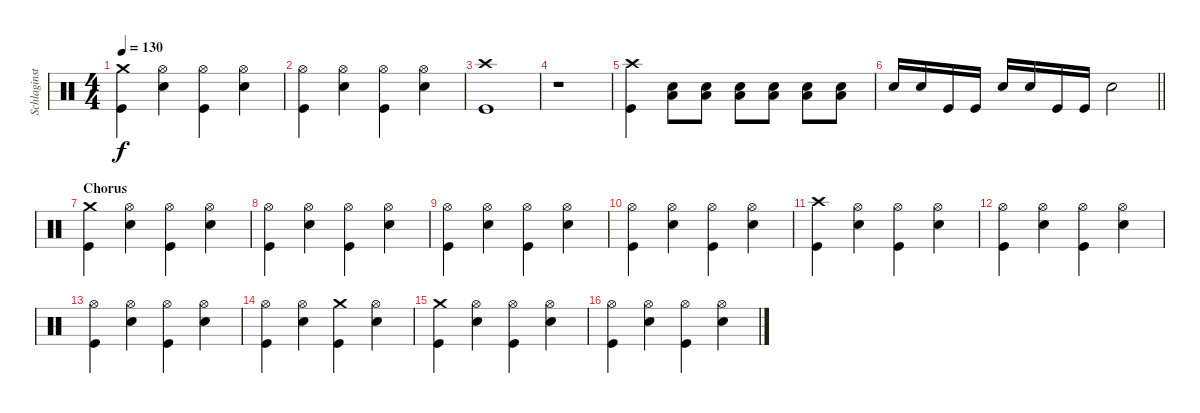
\track ("Schlaginstrumente - Auswahl" "Schlaginst") {instrument percussion}
\staff {score}
\articulation defaults
\ts (4 4)
\tempo 130
\clef neutral
\ks c
("Crash medium (hit)" "Kick (hit)").4{dy f} ("Hi-Hat (open)" "Snare (hit) 2").4 ("Hi-Hat (open)" "Kick (hit)").4 ("Hi-Hat (open)" "Snare (hit) 2").4 |
("Hi-Hat (open)" "Kick (hit)").4 ("Hi-Hat (open)" "Snare (hit) 2").4 ("Hi-Hat (open)" "Kick (hit)").4 ("Hi-Hat (open)" "Snare (hit) 2").4 |
("Kick (hit)" "Crash high (hit)").1 |
r.1 |
("Kick (hit)" "Crash high (hit)").4 ("Snare (hit) 2" "Low Floor Tom (hit)").8 ("Snare (hit) 2" "Low Floor Tom (hit)").8 ("Snare (hit) 2" "Low Floor Tom (hit)").8 ("Snare (hit) 2" "Low Floor Tom (hit)").8 ("Snare (hit) 2" "Low Floor Tom (hit)").8 ("Snare (hit) 2" "Low Floor Tom (hit)").8 |
\barLineRight lightlight "Snare (hit) 2".16 "Snare (hit) 2".16 "Kick (hit)".16 "Kick (hit)".16 "Snare (hit) 2".16 "Snare (hit) 2".16 "Kick (hit)".16 "Kick (hit)".16 "Snare (hit) 2".2
|
\section ("" "Chorus")
("Crash medium (hit)" "Kick (hit)").4 ("Hi-Hat (open)" "Snare (hit) 2").4 ("Hi-Hat (open)" "Kick (hit)").4 ("Hi-Hat (open)" "Snare (hit) 2").4 |
("Hi-Hat (open)" "Kick (hit)").4 ("Hi-Hat (open)" "Snare (hit) 2").4 ("Hi-Hat (open)" "Kick (hit)").4 ("Hi-Hat (open)" "Snare (hit) 2").4 |
("Hi-Hat (open)" "Kick (hit)").4 ("Hi-Hat (open)" "Snare (hit) 2").4 ("Hi-Hat (open)" "Kick (hit)").4 ("Hi-Hat (open)" "Snare (hit) 2").4 |
("Hi-Hat (open)" "Kick (hit)").4 ("Hi-Hat (open)" "Snare (hit) 2").4 ("Hi-Hat (open)" "Kick (hit)").4 ("Hi-Hat (open)" "Snare (hit) 2").4 |
("Crash high (hit)" "Kick (hit)").4 ("Hi-Hat (open)" "Snare (hit) 2").4 ("Hi-Hat (open)" "Kick (hit)").4 ("Hi-Hat (open)" "Snare (hit) 2").4 |
("Hi-Hat (open)" "Kick (hit)").4 ("Hi-Hat (open)" "Snare (hit) 2").4 ("Hi-Hat (open)" "Kick (hit)").4 ("Hi-Hat (open)" "Snare (hit) 2").4 |
("Hi-Hat (open)" "Kick (hit)").4 ("Hi-Hat (open)" "Snare (hit) 2").4 ("Hi-Hat (open)" "Kick (hit)").4 ("Hi-Hat (open)" "Snare (hit) 2").4 |
("Hi-Hat (open)" "Kick (hit)").4 ("Hi-Hat (open)" "Snare (hit) 2").4 ("Crash medium (hit)" "Kick (hit)").4 ("Hi-Hat (open)" "Snare (hit) 2").4 |
("Crash medium (hit)" "Kick (hit)").4 ("Hi-Hat (open)" "Snare (hit) 2").4 ("Hi-Hat (open)" "Kick (hit)").4 ("Hi-Hat (open)" "Snare (hit) 2").4 |
("Hi-Hat (open)" "Kick (hit)").4 ("Hi-Hat (open)" "Snare (hit) 2").4 ("Hi-Hat (open)" "Kick (hit)").4 ("Hi-Hat (open)" "Snare (hit) 2").4
